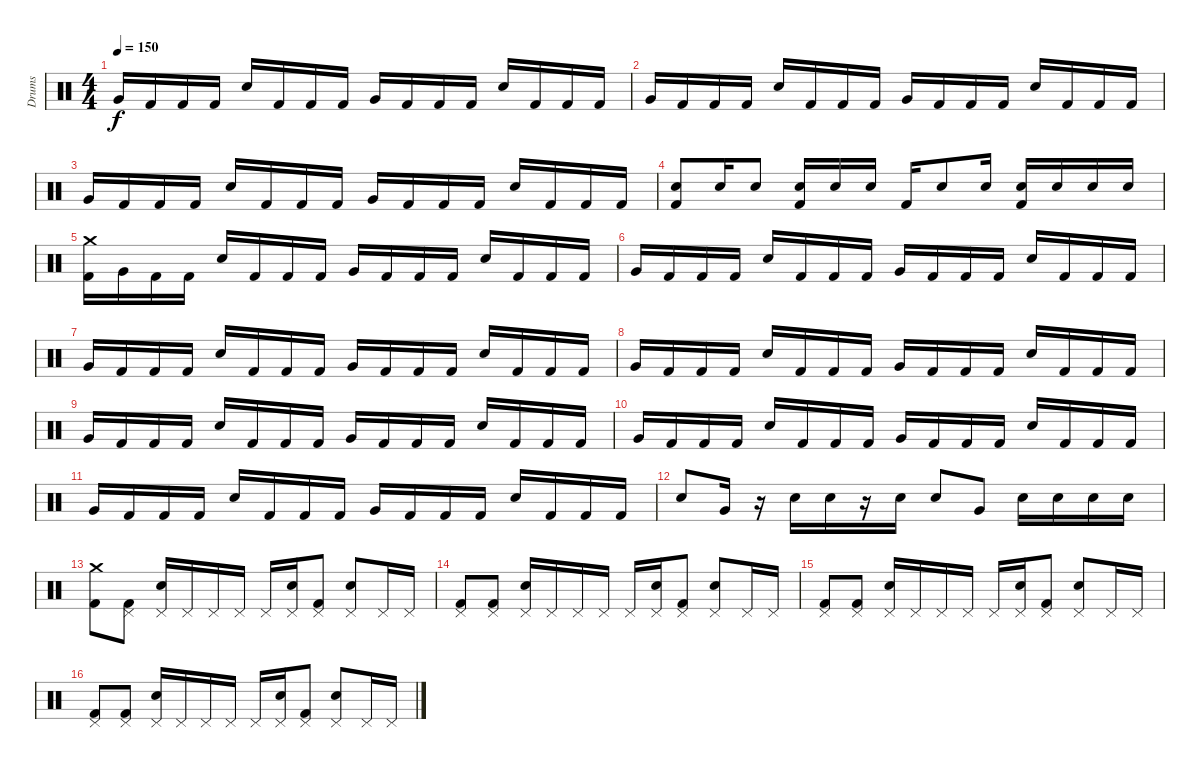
\track ("Drums" "Drums") {instrument percussion}
\staff {score}
\articulation defaults
\ts (4 4)
\tempo 150
\clef neutral
\ks c "Very Low Tom (hit)".16{dy f} "Kick (hit) 2".16 "Kick (hit) 2".16 "Kick (hit) 2".16 "Electric Snare (hit)".16 "Kick (hit) 2".16 "Kick (hit) 2".16 "Kick (hit) 2".16 "Very Low Tom (hit)".16 "Kick (hit) 2".16 "Kick (hit) 2".16 "Kick (hit) 2".16 "Electric Snare (hit)".16 "Kick (hit) 2".16 "Kick (hit) 2".16 "Kick (hit) 2".16
|
"Very Low Tom (hit)".16 "Kick (hit) 2".16 "Kick (hit) 2".16 "Kick (hit) 2".16 "Electric Snare (hit)".16 "Kick (hit) 2".16 "Kick (hit) 2".16 "Kick (hit) 2".16 "Very Low Tom (hit)".16 "Kick (hit) 2".16 "Kick (hit) 2".16 "Kick (hit) 2".16 "Electric Snare (hit)".16 "Kick (hit) 2".16 "Kick (hit) 2".16 "Kick (hit) 2".16 |
"Very Low Tom (hit)".16 "Kick (hit) 2".16 "Kick (hit) 2".16 "Kick (hit) 2".16 "Electric Snare (hit)".16 "Kick (hit) 2".16 "Kick (hit) 2".16 "Kick (hit) 2".16 "Very Low Tom (hit)".16 "Kick (hit) 2".16 "Kick (hit) 2".16 "Kick (hit) 2".16 "Electric Snare (hit)".16 "Kick (hit) 2".16 "Kick (hit) 2".16 "Kick (hit) 2".16 |
("Electric Snare (hit)" "Kick (hit) 2").8 "Electric Snare (hit)".16 "Electric Snare (hit)".8 ("Electric Snare (hit)" "Kick (hit) 2").16 "Electric Snare (hit)".16 "Electric Snare (hit)".16 "Kick (hit) 2".16 "Electric Snare (hit)".8 "Electric Snare (hit)".16 ("Electric Snare (hit)" "Kick (hit) 2").16 "Electric Snare (hit)".16 "Electric Snare (hit)".16 "Electric Snare (hit)".16 |
("Crash medium (hit)" "Kick (hit) 2").16 "Very Low Tom (hit)".16 "Kick (hit) 2".16 "Kick (hit) 2".16 "Electric Snare (hit)".16 "Kick (hit) 2".16 "Kick (hit) 2".16 "Kick (hit) 2".16 "Very Low Tom (hit)".16 "Kick (hit) 2".16 "Kick (hit) 2".16 "Kick (hit) 2".16 "Electric Snare (hit)".16 "Kick (hit) 2".16 "Kick (hit) 2".16 "Kick (hit) 2".16 |
"Very Low Tom (hit)".16 "Kick (hit) 2".16 "Kick (hit) 2".16 "Kick (hit) 2".16 "Electric Snare (hit)".16 "Kick (hit) 2".16 "Kick (hit) 2".16 "Kick (hit) 2".16 "Very Low Tom (hit)".16 "Kick (hit) 2".16 "Kick (hit) 2".16 "Kick (hit) 2".16 "Electric Snare (hit)".16 "Kick (hit) 2".16 "Kick (hit) 2".16 "Kick (hit) 2".16 |
"Very Low Tom (hit)".16 "Kick (hit) 2".16 "Kick (hit) 2".16 "Kick (hit) 2".16 "Electric Snare (hit)".16 "Kick (hit) 2".16 "Kick (hit) 2".16 "Kick (hit) 2".16 "Very Low Tom (hit)".16 "Kick (hit) 2".16 "Kick (hit) 2".16 "Kick (hit) 2".16 "Electric Snare (hit)".16 "Kick (hit) 2".16 "Kick (hit) 2".16 "Kick (hit) 2".16 |
"Very Low Tom (hit)".16 "Kick (hit) 2".16 "Kick (hit) 2".16 "Kick (hit) 2".16 "Electric Snare (hit)".16 "Kick (hit) 2".16 "Kick (hit) 2".16 "Kick (hit) 2".16 "Very Low Tom (hit)".16 "Kick (hit) 2".16 "Kick (hit) 2".16 "Kick (hit) 2".16 "Electric Snare (hit)".16 "Kick (hit) 2".16 "Kick (hit) 2".16 "Kick (hit) 2".16 |
"Very Low Tom (hit)".16 "Kick (hit) 2".16 "Kick (hit) 2".16 "Kick (hit) 2".16 "Electric Snare (hit)".16 "Kick (hit) 2".16 "Kick (hit) 2".16 "Kick (hit) 2".16 "Very Low Tom (hit)".16 "Kick (hit) 2".16 "Kick (hit) 2".16 "Kick (hit) 2".16 "Electric Snare (hit)".16 "Kick (hit) 2".16 "Kick (hit) 2".16 "Kick (hit) 2".16 |
"Very Low Tom (hit)".16 "Kick (hit) 2".16 "Kick (hit) 2".16 "Kick (hit) 2".16 "Electric Snare (hit)".16 "Kick (hit) 2".16 "Kick (hit) 2".16 "Kick (hit) 2".16 "Very Low Tom (hit)".16 "Kick (hit) 2".16 "Kick (hit) 2".16 "Kick (hit) 2".16 "Electric Snare (hit)".16 "Kick (hit) 2".16 "Kick (hit) 2".16 "Kick (hit) 2".16 |
"Very Low Tom (hit)".16 "Kick (hit) 2".16 "Kick (hit) 2".16 "Kick (hit) 2".16 "Electric Snare (hit)".16 "Kick (hit) 2".16 "Kick (hit) 2".16 "Kick (hit) 2".16 "Very Low Tom (hit)".16 "Kick (hit) 2".16 "Kick (hit) 2".16 "Kick (hit) 2".16 "Electric Snare (hit)".16 "Kick (hit) 2".16 "Kick (hit) 2".16 "Kick (hit) 2".16 |
"Electric Snare (hit)".8 "Very Low Tom (hit)".16 r.16 "Electric Snare (hit)".16 "Electric Snare (hit)".16 r.16 "Electric Snare (hit)".16 "Electric Snare (hit)".8 "Very Low Tom (hit)".8 "Electric Snare (hit)".16 "Electric Snare (hit)".16 "Electric Snare (hit)".16 "Electric Snare (hit)".16 |
("Crash medium (hit)" "Kick (hit) 2").8 ("Pedal Hi-Hat (hit)" "Kick (hit) 2").8 ("Pedal Hi-Hat (hit)" "Electric Snare (hit)").16 "Pedal Hi-Hat (hit)".16 "Pedal Hi-Hat (hit)".16 "Pedal Hi-Hat (hit)".16 "Pedal Hi-Hat (hit)".16 ("Pedal Hi-Hat (hit)" "Electric Snare (hit)").16 ("Pedal Hi-Hat (hit)" "Kick (hit) 2").8 ("Pedal Hi-Hat (hit)" "Electric Snare (hit)").8 "Pedal Hi-Hat (hit)".16 "Pedal Hi-Hat (hit)".16 |
("Pedal Hi-Hat (hit)" "Kick (hit) 2").8 ("Pedal Hi-Hat (hit)" "Kick (hit) 2").8 ("Pedal Hi-Hat (hit)" "Electric Snare (hit)").16 "Pedal Hi-Hat (hit)".16 "Pedal Hi-Hat (hit)".16 "Pedal Hi-Hat (hit)".16 "Pedal Hi-Hat (hit)".16 ("Pedal Hi-Hat (hit)" "Electric Snare (hit)").16 ("Pedal Hi-Hat (hit)" "Kick (hit) 2").8 ("Pedal Hi-Hat (hit)" "Electric Snare (hit)").8 "Pedal Hi-Hat (hit)".16 "Pedal Hi-Hat (hit)".16 |
("Pedal Hi-Hat (hit)" "Kick (hit) 2").8 ("Pedal Hi-Hat (hit)" "Kick (hit) 2").8 ("Pedal Hi-Hat (hit)" "Electric Snare (hit)").16 "Pedal Hi-Hat (hit)".16 "Pedal Hi-Hat (hit)".16 "Pedal Hi-Hat (hit)".16 "Pedal Hi-Hat (hit)".16 ("Pedal Hi-Hat (hit)" "Electric Snare (hit)").16 ("Pedal Hi-Hat (hit)" "Kick (hit) 2").8 ("Pedal Hi-Hat (hit)" "Electric Snare (hit)").8 "Pedal Hi-Hat (hit)".16 "Pedal Hi-Hat (hit)".16 |
("Pedal Hi-Hat (hit)" "Kick (hit) 2").8 ("Pedal Hi-Hat (hit)" "Kick (hit) 2").8 ("Pedal Hi-Hat (hit)" "Electric Snare (hit)").16 "Pedal Hi-Hat (hit)".16 "Pedal Hi-Hat (hit)".16 "Pedal Hi-Hat (hit)".16 "Pedal Hi-Hat (hit)".16 ("Pedal Hi-Hat (hit)" "Electric Snare (hit)").16 ("Pedal Hi-Hat (hit)" "Kick (hit) 2").8 ("Pedal Hi-Hat (hit)" "Electric Snare (hit)").8 "Pedal Hi-Hat (hit)".16 "Pedal Hi-Hat (hit)".16
